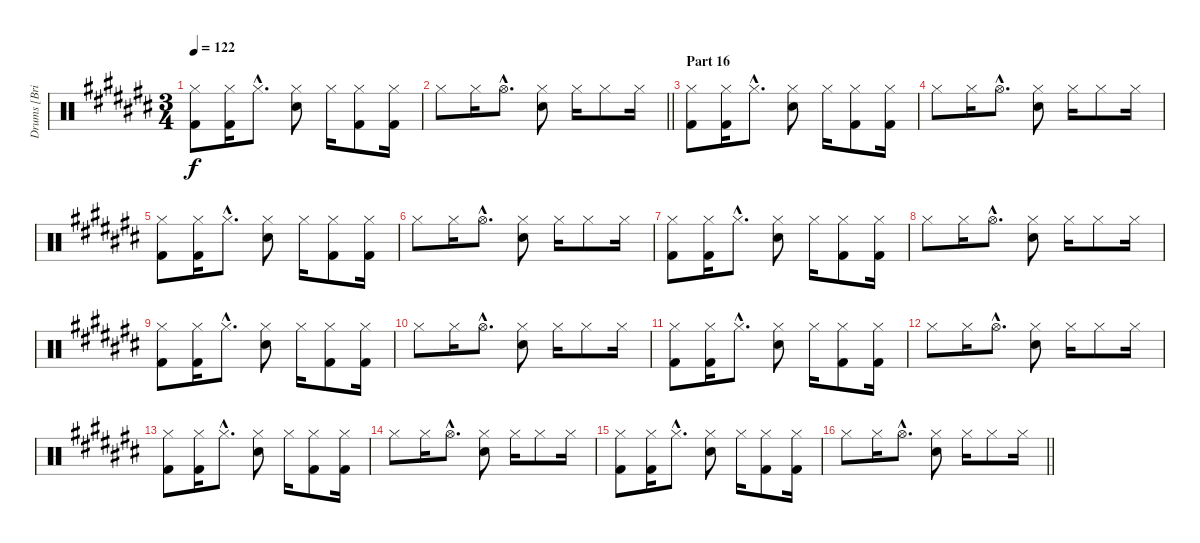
\track ("Drums [Brian \"Brain\" Mantia]" "Drums [Bri") {instrument percussion}
\staff {score}
\articulation defaults
\ts (3 4)
\tempo 122
\clef neutral
\ks c#
("Hi-Hat (closed)" "Kick (hit) 2").8{dy f} ("Hi-Hat (closed)" "Kick (hit) 2").16 "Hi-Hat (closed)"{hac}.8{d} ("Hi-Hat (closed)" "Electric Snare (hit)").8 "Hi-Hat (closed)".16 ("Hi-Hat (closed)" "Kick (hit) 2").8 ("Hi-Hat (closed)" "Kick (hit) 2").16 |
\barLineRight lightlight "Hi-Hat (closed)".8 "Hi-Hat (closed)".16 "Hi-Hat (open)"{hac}.8{d}
("Hi-Hat (closed)" "Electric Snare (hit)").8 "Hi-Hat (closed)".16 "Hi-Hat (closed)".8 "Hi-Hat (closed)".16 |
\section ("" "Part 16")
("Hi-Hat (closed)" "Kick (hit) 2").8{volume 8} ("Hi-Hat (closed)" "Kick (hit) 2").16 "Hi-Hat (closed)"{hac}.8{d} ("Hi-Hat (closed)" "Electric Snare (hit)").8 "Hi-Hat (closed)".16 ("Hi-Hat (closed)" "Kick (hit) 2").8 ("Hi-Hat (closed)" "Kick (hit) 2").16 |
"Hi-Hat (closed)".8 "Hi-Hat (closed)".16 "Hi-Hat (open)"{hac}.8{d} ("Hi-Hat (closed)" "Electric Snare (hit)").8 "Hi-Hat (closed)".16 "Hi-Hat (closed)".8 "Hi-Hat (closed)".16 |
("Hi-Hat (closed)" "Kick (hit) 2").8 ("Hi-Hat (closed)" "Kick (hit) 2").16 "Hi-Hat (closed)"{hac}.8{d} ("Hi-Hat (closed)" "Electric Snare (hit)").8 "Hi-Hat (closed)".16 ("Hi-Hat (closed)" "Kick (hit) 2").8 ("Hi-Hat (closed)" "Kick (hit) 2").16 |
"Hi-Hat (closed)".8 "Hi-Hat (closed)".16 "Hi-Hat (open)"{hac}.8{d} ("Hi-Hat (closed)" "Electric Snare (hit)").8 "Hi-Hat (closed)".16 "Hi-Hat (closed)".8 "Hi-Hat (closed)".16 |
("Hi-Hat (closed)" "Kick (hit) 2").8{volume 4} ("Hi-Hat (closed)" "Kick (hit) 2").16 "Hi-Hat (closed)"{hac}.8{d} ("Hi-Hat (closed)" "Electric Snare (hit)").8 "Hi-Hat (closed)".16 ("Hi-Hat (closed)" "Kick (hit) 2").8 ("Hi-Hat (closed)" "Kick (hit) 2").16 |
"Hi-Hat (closed)".8 "Hi-Hat (closed)".16 "Hi-Hat (open)"{hac}.8{d} ("Hi-Hat (closed)" "Electric Snare (hit)").8 "Hi-Hat (closed)".16 "Hi-Hat (closed)".8 "Hi-Hat (closed)".16 |
("Hi-Hat (closed)" "Kick (hit) 2").8 ("Hi-Hat (closed)" "Kick (hit) 2").16 "Hi-Hat (closed)"{hac}.8{d} ("Hi-Hat (closed)" "Electric Snare (hit)").8 "Hi-Hat (closed)".16 ("Hi-Hat (closed)" "Kick (hit) 2").8 ("Hi-Hat (closed)" "Kick (hit) 2").16 |
"Hi-Hat (closed)".8 "Hi-Hat (closed)".16 "Hi-Hat (open)"{hac}.8{d} ("Hi-Hat (closed)" "Electric Snare (hit)").8 "Hi-Hat (closed)".16 "Hi-Hat (closed)".8 "Hi-Hat (closed)".16 |
("Hi-Hat (closed)" "Kick (hit) 2").8{volume 0} ("Hi-Hat (closed)" "Kick (hit) 2").16 "Hi-Hat (closed)"{hac}.8{d} ("Hi-Hat (closed)" "Electric Snare (hit)").8 "Hi-Hat (closed)".16 ("Hi-Hat (closed)" "Kick (hit) 2").8 ("Hi-Hat (closed)" "Kick (hit) 2").16 |
"Hi-Hat (closed)".8 "Hi-Hat (closed)".16 "Hi-Hat (open)"{hac}.8{d} ("Hi-Hat (closed)" "Electric Snare (hit)").8 "Hi-Hat (closed)".16 "Hi-Hat (closed)".8 "Hi-Hat (closed)".16 |
("Hi-Hat (closed)" "Kick (hit) 2").8 ("Hi-Hat (closed)" "Kick (hit) 2").16 "Hi-Hat (closed)"{hac}.8{d} ("Hi-Hat (closed)" "Electric Snare (hit)").8 "Hi-Hat (closed)".16 ("Hi-Hat (closed)" "Kick (hit) 2").8 ("Hi-Hat (closed)" "Kick (hit) 2").16 |
"Hi-Hat (closed)".8 "Hi-Hat (closed)".16 "Hi-Hat (open)"{hac}.8{d} ("Hi-Hat (closed)" "Electric Snare (hit)").8 "Hi-Hat (closed)".16 "Hi-Hat (closed)".8 "Hi-Hat (closed)".16 |
("Hi-Hat (closed)" "Kick (hit) 2").8 ("Hi-Hat (closed)" "Kick (hit) 2").16 "Hi-Hat (closed)"{hac}.8{d} ("Hi-Hat (closed)" "Electric Snare (hit)").8 "Hi-Hat (closed)".16 ("Hi-Hat (closed)" "Kick (hit) 2").8 ("Hi-Hat (closed)" "Kick (hit) 2").16 |
\barLineRight lightlight "Hi-Hat (closed)".8 "Hi-Hat (closed)".16 "Hi-Hat (open)"{hac}.8{d}
("Hi-Hat (closed)" "Electric Snare (hit)").8 "Hi-Hat (closed)".16 "Hi-Hat (closed)".8 "Hi-Hat (closed)".16
